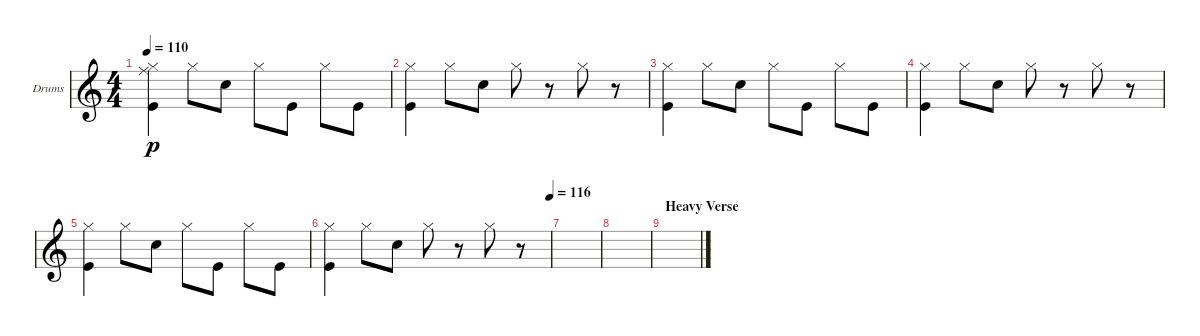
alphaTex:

\defaultSystemsLayout 4
\bracketExtendMode groupsimilarinstruments
\firstSystemTrackNameOrientation horizontal
\otherSystemsTrackNameOrientation horizontal
\track ("Quiet Drumkit" "Drums") {instrument percussion}
\staff {score}
\articulation defaults
\ts (4 4)
\tempo 110
\clef g2
\ks c
("Hi-Hat (closed)" "Kick (hit)" "Ride (middle)").4{dy p} "Hi-Hat (closed)".8 "Snare (hit) 2".8 "Hi-Hat (closed)".8 "Kick (hit)".8 "Hi-Hat (closed)".8 "Kick (hit)".8 |
("Hi-Hat (closed)" "Kick (hit)").4 "Hi-Hat (closed)".8 "Snare (hit) 2".8 "Hi-Hat (closed)".8 r.8 "Hi-Hat (closed)".8 r.8 |
("Hi-Hat (closed)" "Kick (hit)").4 "Hi-Hat (closed)".8 "Snare (hit) 2".8 "Hi-Hat (closed)".8 "Kick (hit)".8 "Hi-Hat (closed)".8 "Kick (hit)".8 |
("Hi-Hat (closed)" "Kick (hit)").4 "Hi-Hat (closed)".8 "Snare (hit) 2".8 "Hi-Hat (closed)".8 r.8 "Hi-Hat (closed)".8 r.8 |
("Hi-Hat (closed)" "Kick (hit)").4 "Hi-Hat (closed)".8 "Snare (hit) 2".8 "Hi-Hat (closed)".8 "Kick (hit)".8 "Hi-Hat (closed)".8 "Kick (hit)".8 |
\tempo (116 1)
("Hi-Hat (closed)" "Kick (hit)").4 "Hi-Hat (closed)".8 "Snare (hit) 2".8 "Hi-Hat (closed)".8 r.8 "Hi-Hat (closed)".8 r.8 |
|
|
\section ("" "Heavy Verse")
